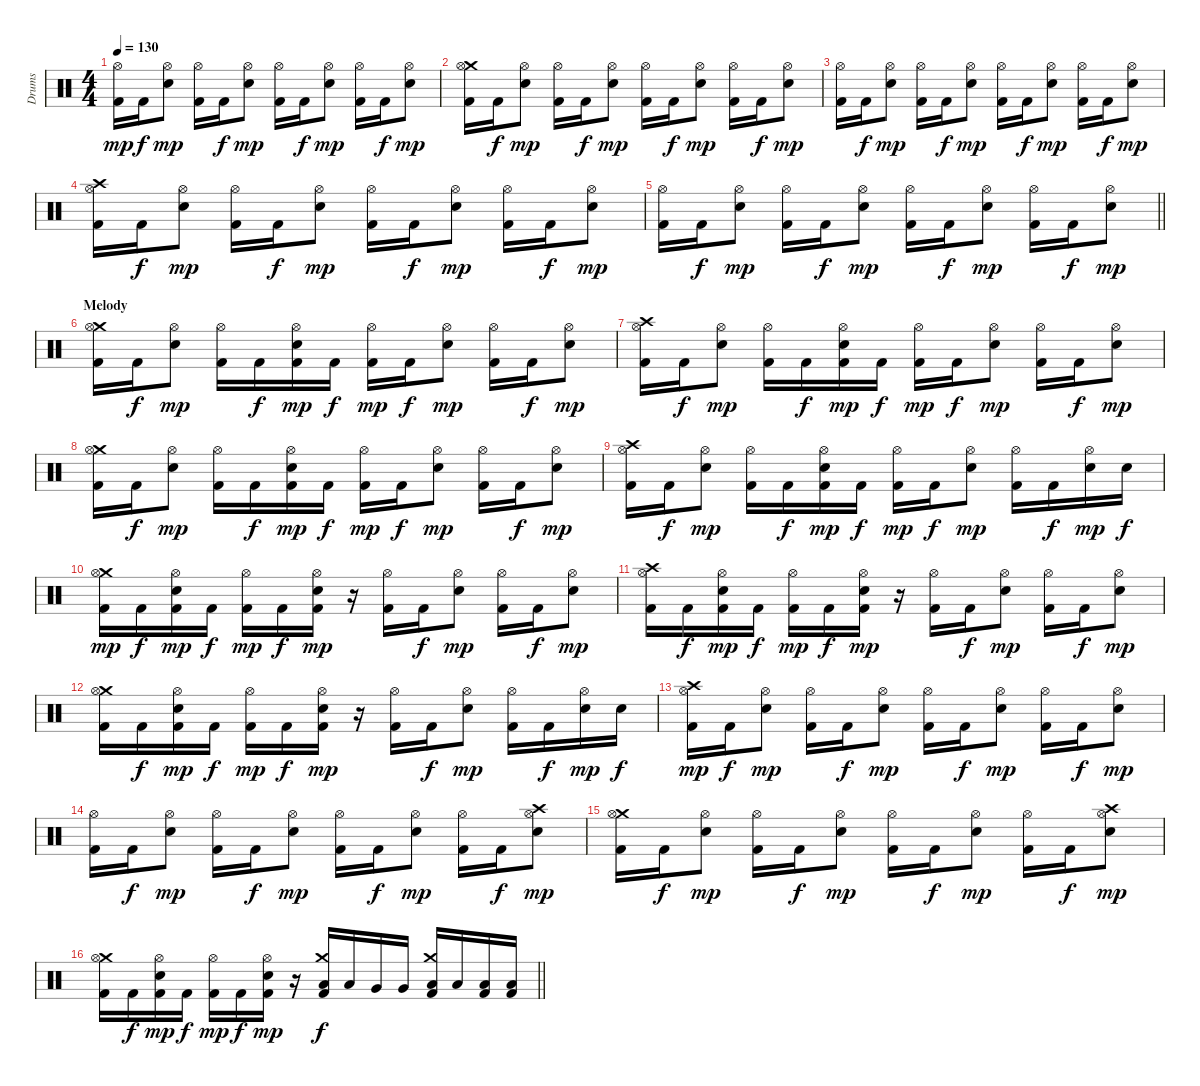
\track ("Drums" "Drums") {instrument percussion}
\staff {score}
\articulation defaults
\ts (4 4)
\tempo 130
\clef neutral
\ks c
("Hi-Hat (open)" "Kick (hit) 2").16{dy mp} "Kick (hit) 2".16{dy f} ("Hi-Hat (open)" "Snare (hit) 2").8{dy mp} ("Hi-Hat (open)" "Kick (hit) 2").16 "Kick (hit) 2".16{dy f} ("Hi-Hat (open)" "Snare (hit) 2").8{dy mp} ("Hi-Hat (open)" "Kick (hit) 2").16 "Kick (hit) 2".16{dy f} ("Hi-Hat (open)" "Snare (hit) 2").8{dy mp} ("Hi-Hat (open)" "Kick (hit) 2").16 "Kick (hit) 2".16{dy f} ("Hi-Hat (open)" "Snare (hit) 2").8{dy mp} |
("Crash medium (hit)" "Hi-Hat (open)" "Kick (hit) 2").16 "Kick (hit) 2".16{dy f} ("Hi-Hat (open)" "Snare (hit) 2").8{dy mp} ("Hi-Hat (open)" "Kick (hit) 2").16 "Kick (hit) 2".16{dy f} ("Hi-Hat (open)" "Snare (hit) 2").8{dy mp} ("Hi-Hat (open)" "Kick (hit) 2").16 "Kick (hit) 2".16{dy f} ("Hi-Hat (open)" "Snare (hit) 2").8{dy mp} ("Hi-Hat (open)" "Kick (hit) 2").16 "Kick (hit) 2".16{dy f} ("Hi-Hat (open)" "Snare (hit) 2").8{dy mp} |
("Hi-Hat (open)" "Kick (hit) 2").16 "Kick (hit) 2".16{dy f} ("Hi-Hat (open)" "Snare (hit) 2").8{dy mp} ("Hi-Hat (open)" "Kick (hit) 2").16 "Kick (hit) 2".16{dy f} ("Hi-Hat (open)" "Snare (hit) 2").8{dy mp} ("Hi-Hat (open)" "Kick (hit) 2").16 "Kick (hit) 2".16{dy f} ("Hi-Hat (open)" "Snare (hit) 2").8{dy mp} ("Hi-Hat (open)" "Kick (hit) 2").16 "Kick (hit) 2".16{dy f} ("Hi-Hat (open)" "Snare (hit) 2").8{dy mp} |
("Crash high (hit)" "Hi-Hat (open)" "Kick (hit) 2").16 "Kick (hit) 2".16{dy f} ("Hi-Hat (open)" "Snare (hit) 2").8{dy mp} ("Hi-Hat (open)" "Kick (hit) 2").16 "Kick (hit) 2".16{dy f} ("Hi-Hat (open)" "Snare (hit) 2").8{dy mp} ("Hi-Hat (open)" "Kick (hit) 2").16 "Kick (hit) 2".16{dy f} ("Hi-Hat (open)" "Snare (hit) 2").8{dy mp} ("Hi-Hat (open)" "Kick (hit) 2").16 "Kick (hit) 2".16{dy f} ("Hi-Hat (open)" "Snare (hit) 2").8{dy mp} |
\barLineRight lightlight
("Hi-Hat (open)" "Kick (hit) 2").16 "Kick (hit) 2".16{dy f} ("Hi-Hat (open)" "Snare (hit) 2").8{dy mp} ("Hi-Hat (open)" "Kick (hit) 2").16 "Kick (hit) 2".16{dy f} ("Hi-Hat (open)" "Snare (hit) 2").8{dy mp} ("Hi-Hat (open)" "Kick (hit) 2").16 "Kick (hit) 2".16{dy f} ("Hi-Hat (open)" "Snare (hit) 2").8{dy mp} ("Hi-Hat (open)" "Kick (hit) 2").16 "Kick (hit) 2".16{dy f} ("Hi-Hat (open)" "Snare (hit) 2").8{dy mp} |
\section ("" "Melody")
("Crash medium (hit)" "Hi-Hat (open)" "Kick (hit) 2").16 "Kick (hit) 2".16{dy f} ("Hi-Hat (open)" "Snare (hit) 2").8{dy mp} ("Hi-Hat (open)" "Kick (hit) 2").16 "Kick (hit) 2".16{dy f} ("Hi-Hat (open)" "Snare (hit) 2" "Kick (hit) 2").16{dy mp} "Kick (hit) 2".16{dy f} ("Hi-Hat (open)" "Kick (hit) 2").16{dy mp} "Kick (hit) 2".16{dy f} ("Hi-Hat (open)" "Snare (hit) 2").8{dy mp} ("Hi-Hat (open)" "Kick (hit) 2").16 "Kick (hit) 2".16{dy f} ("Hi-Hat (open)" "Snare (hit) 2").8{dy mp} |
("Crash high (hit)" "Hi-Hat (open)" "Kick (hit) 2").16 "Kick (hit) 2".16{dy f} ("Hi-Hat (open)" "Snare (hit) 2").8{dy mp} ("Hi-Hat (open)" "Kick (hit) 2").16 "Kick (hit) 2".16{dy f} ("Hi-Hat (open)" "Snare (hit) 2" "Kick (hit) 2").16{dy mp} "Kick (hit) 2".16{dy f} ("Hi-Hat (open)" "Kick (hit) 2").16{dy mp} "Kick (hit) 2".16{dy f} ("Hi-Hat (open)" "Snare (hit) 2").8{dy mp} ("Hi-Hat (open)" "Kick (hit) 2").16 "Kick (hit) 2".16{dy f} ("Hi-Hat (open)" "Snare (hit) 2").8{dy mp} |
("Crash medium (hit)" "Hi-Hat (open)" "Kick (hit) 2").16 "Kick (hit) 2".16{dy f} ("Hi-Hat (open)" "Snare (hit) 2").8{dy mp} ("Hi-Hat (open)" "Kick (hit) 2").16 "Kick (hit) 2".16{dy f} ("Hi-Hat (open)" "Snare (hit) 2" "Kick (hit) 2").16{dy mp} "Kick (hit) 2".16{dy f} ("Hi-Hat (open)" "Kick (hit) 2").16{dy mp} "Kick (hit) 2".16{dy f} ("Hi-Hat (open)" "Snare (hit) 2").8{dy mp} ("Hi-Hat (open)" "Kick (hit) 2").16 "Kick (hit) 2".16{dy f} ("Hi-Hat (open)" "Snare (hit) 2").8{dy mp} |
("Crash high (hit)" "Hi-Hat (open)" "Kick (hit) 2").16 "Kick (hit) 2".16{dy f} ("Hi-Hat (open)" "Snare (hit) 2").8{dy mp} ("Hi-Hat (open)" "Kick (hit) 2").16 "Kick (hit) 2".16{dy f} ("Hi-Hat (open)" "Snare (hit) 2" "Kick (hit) 2").16{dy mp} "Kick (hit) 2".16{dy f} ("Hi-Hat (open)" "Kick (hit) 2").16{dy mp} "Kick (hit) 2".16{dy f} ("Hi-Hat (open)" "Snare (hit) 2").8{dy mp} ("Hi-Hat (open)" "Kick (hit) 2").16 "Kick (hit) 2".16{dy f} ("Hi-Hat (open)" "Snare (hit) 2").16{dy mp} "Snare (hit) 2".16{dy f} |
("Crash medium (hit)" "Hi-Hat (open)" "Kick (hit) 2").16{dy mp} "Kick (hit) 2".16{dy f} ("Hi-Hat (open)" "Snare (hit) 2" "Kick (hit) 2").16{dy mp} "Kick (hit) 2".16{dy f} ("Hi-Hat (open)" "Kick (hit) 2").16{dy mp} "Kick (hit) 2".16{dy f} ("Hi-Hat (open)" "Snare (hit) 2" "Kick (hit) 2").16{dy mp} r.16 ("Hi-Hat (open)" "Kick (hit) 2").16 "Kick (hit) 2".16{dy f} ("Hi-Hat (open)" "Snare (hit) 2").8{dy mp} ("Hi-Hat (open)" "Kick (hit) 2").16 "Kick (hit) 2".16{dy f} ("Hi-Hat (open)" "Snare (hit) 2").8{dy mp} |
("Crash high (hit)" "Hi-Hat (open)" "Kick (hit) 2").16 "Kick (hit) 2".16{dy f} ("Hi-Hat (open)" "Snare (hit) 2" "Kick (hit) 2").16{dy mp} "Kick (hit) 2".16{dy f} ("Hi-Hat (open)" "Kick (hit) 2").16{dy mp} "Kick (hit) 2".16{dy f} ("Hi-Hat (open)" "Snare (hit) 2" "Kick (hit) 2").16{dy mp} r.16 ("Hi-Hat (open)" "Kick (hit) 2").16 "Kick (hit) 2".16{dy f} ("Hi-Hat (open)" "Snare (hit) 2").8{dy mp} ("Hi-Hat (open)" "Kick (hit) 2").16 "Kick (hit) 2".16{dy f} ("Hi-Hat (open)" "Snare (hit) 2").8{dy mp} |
("Crash medium (hit)" "Hi-Hat (open)" "Kick (hit) 2").16 "Kick (hit) 2".16{dy f} ("Hi-Hat (open)" "Snare (hit) 2" "Kick (hit) 2").16{dy mp} "Kick (hit) 2".16{dy f} ("Hi-Hat (open)" "Kick (hit) 2").16{dy mp} "Kick (hit) 2".16{dy f} ("Hi-Hat (open)" "Snare (hit) 2" "Kick (hit) 2").16{dy mp} r.16 ("Hi-Hat (open)" "Kick (hit) 2").16 "Kick (hit) 2".16{dy f} ("Hi-Hat (open)" "Snare (hit) 2").8{dy mp} ("Hi-Hat (open)" "Kick (hit) 2").16 "Kick (hit) 2".16{dy f} ("Hi-Hat (open)" "Snare (hit) 2").16{dy mp} "Snare (hit) 2".16{dy f} |
("Crash high (hit)" "Hi-Hat (open)" "Kick (hit) 2").16{dy mp} "Kick (hit) 2".16{dy f} ("Hi-Hat (open)" "Snare (hit) 2").8{dy mp} ("Hi-Hat (open)" "Kick (hit) 2").16 "Kick (hit) 2".16{dy f} ("Hi-Hat (open)" "Snare (hit) 2").8{dy mp} ("Hi-Hat (open)" "Kick (hit) 2").16 "Kick (hit) 2".16{dy f} ("Hi-Hat (open)" "Snare (hit) 2").8{dy mp} ("Hi-Hat (open)" "Kick (hit) 2").16 "Kick (hit) 2".16{dy f} ("Hi-Hat (open)" "Snare (hit) 2").8{dy mp} |
("Hi-Hat (open)" "Kick (hit) 2").16 "Kick (hit) 2".16{dy f} ("Hi-Hat (open)" "Snare (hit) 2").8{dy mp} ("Hi-Hat (open)" "Kick (hit) 2").16 "Kick (hit) 2".16{dy f} ("Hi-Hat (open)" "Snare (hit) 2").8{dy mp} ("Hi-Hat (open)" "Kick (hit) 2").16 "Kick (hit) 2".16{dy f} ("Hi-Hat (open)" "Snare (hit) 2").8{dy mp} ("Hi-Hat (open)" "Kick (hit) 2").16 "Kick (hit) 2".16{dy f} ("Crash high (hit)" "Hi-Hat (open)" "Snare (hit) 2").8{dy mp} |
("Crash medium (hit)" "Hi-Hat (open)" "Kick (hit) 2").16 "Kick (hit) 2".16{dy f} ("Hi-Hat (open)" "Snare (hit) 2").8{dy mp} ("Hi-Hat (open)" "Kick (hit) 2").16 "Kick (hit) 2".16{dy f} ("Hi-Hat (open)" "Snare (hit) 2").8{dy mp} ("Hi-Hat (open)" "Kick (hit) 2").16 "Kick (hit) 2".16{dy f} ("Hi-Hat (open)" "Snare (hit) 2").8{dy mp} ("Hi-Hat (open)" "Kick (hit) 2").16 "Kick (hit) 2".16{dy f} ("Crash high (hit)" "Hi-Hat (open)" "Snare (hit) 2").8{dy mp} |
\barLineRight lightlight
("Crash medium (hit)" "Hi-Hat (open)" "Kick (hit) 2").16 "Kick (hit) 2".16{dy f} ("Hi-Hat (open)" "Snare (hit) 2" "Kick (hit) 2").16{dy mp} "Kick (hit) 2".16{dy f} ("Hi-Hat (open)" "Kick (hit) 2").16{dy mp} "Kick (hit) 2".16{dy f} ("Hi-Hat (open)" "Snare (hit) 2" "Kick (hit) 2").16{dy mp} r.16 ("Crash medium (hit)" "Low Tom (hit)" "Kick (hit) 2").16{dy f} "Low Tom (hit)".16 "Very Low Tom (hit)".16 "Very Low Tom (hit)".16 ("Crash medium (hit)" "Low Floor Tom (hit)" "Kick (hit) 2").16 "Low Floor Tom (hit)".16 ("Low Floor Tom (hit)" "Kick (hit) 2").16 ("Low Floor Tom (hit)" "Kick (hit) 2").16
